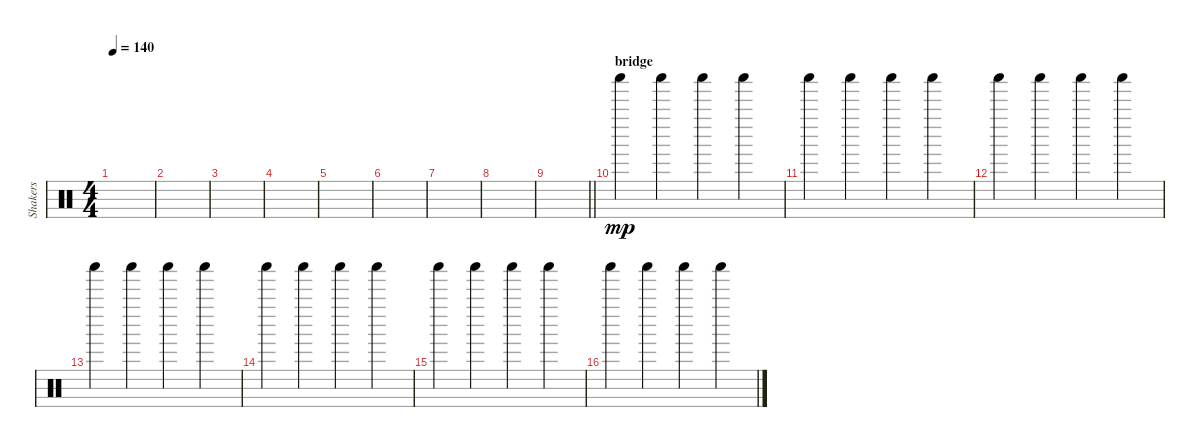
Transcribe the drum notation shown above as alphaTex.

\track ("Shakers" "Shakers") {instrument percussion}
\staff {score}
\articulation defaults
\ts (4 4)
\tempo 140
\clef neutral
\ks c
|
|
|
|
|
|
|
|
\barLineRight lightlight
|
\section ("" "bridge")
"Shaker (hit)".4{dy mp} "Shaker (hit)".4 "Shaker (hit)".4 "Shaker (hit)".4 |
"Shaker (hit)".4 "Shaker (hit)".4 "Shaker (hit)".4 "Shaker (hit)".4 |
"Shaker (hit)".4 "Shaker (hit)".4 "Shaker (hit)".4 "Shaker (hit)".4 |
"Shaker (hit)".4 "Shaker (hit)".4 "Shaker (hit)".4 "Shaker (hit)".4 |
"Shaker (hit)".4 "Shaker (hit)".4 "Shaker (hit)".4 "Shaker (hit)".4 |
"Shaker (hit)".4 "Shaker (hit)".4 "Shaker (hit)".4 "Shaker (hit)".4 |
"Shaker (hit)".4 "Shaker (hit)".4 "Shaker (hit)".4 "Shaker (hit)".4
